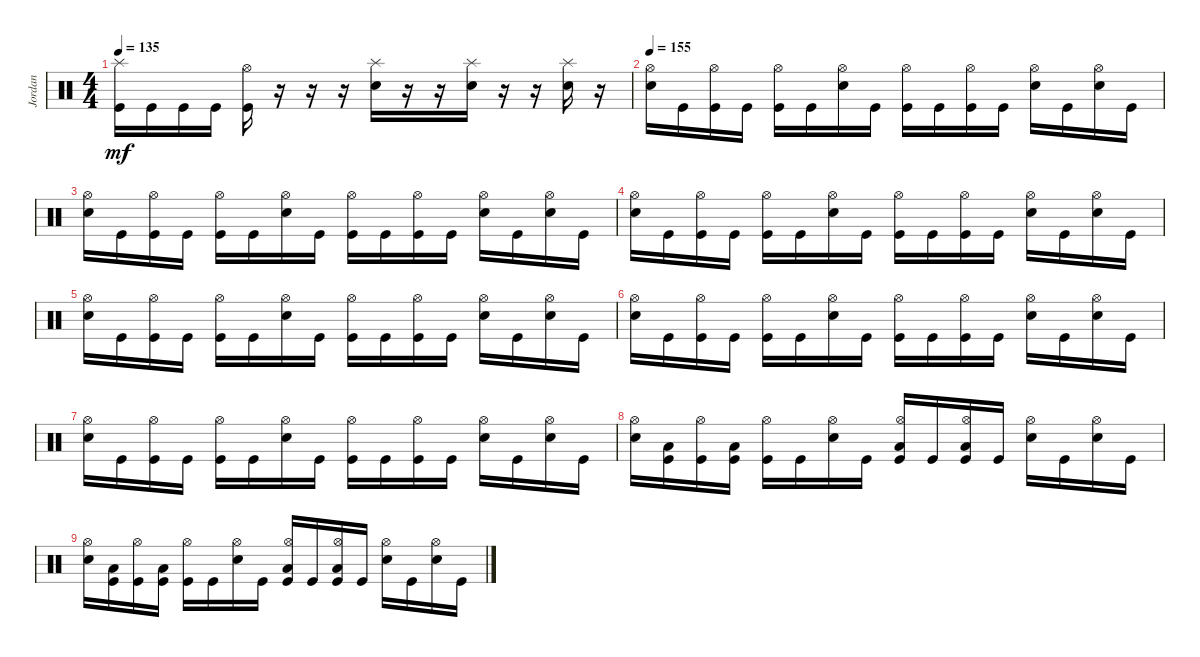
\track ("Jordan" "Jordan") {instrument percussion}
\staff {score}
\articulation defaults
\ts (4 4)
\tempo 135
\clef neutral
\ks c
("Kick (hit)" "Splash (hit)").16{dy mf} "Kick (hit)".16 "Kick (hit)".16 "Kick (hit)".16 ("Kick (hit)" "Hi-Hat (open)").16 r.16 r.16 r.16 ("Snare (hit) 2" "Splash (hit)").16 r.16 r.16 ("Snare (hit) 2" "Splash (hit)").16 r.16 r.16 ("Snare (hit) 2" "Splash (hit)").16 r.16 |
\tempo 155
("Snare (hit) 2" "Hi-Hat (open)").16 "Kick (hit)".16 ("Kick (hit)" "Hi-Hat (open)").16 "Kick (hit)".16 ("Hi-Hat (open)" "Kick (hit)").16 "Kick (hit)".16 ("Hi-Hat (open)" "Snare (hit) 2").16 "Kick (hit)".16 ("Hi-Hat (open)" "Kick (hit)").16 "Kick (hit)".16 ("Kick (hit)" "Hi-Hat (open)").16 "Kick (hit)".16 ("Hi-Hat (open)" "Snare (hit) 2").16 "Kick (hit)".16 ("Hi-Hat (open)" "Snare (hit) 2").16 "Kick (hit)".16 |
("Snare (hit) 2" "Hi-Hat (open)").16 "Kick (hit)".16 ("Kick (hit)" "Hi-Hat (open)").16 "Kick (hit)".16 ("Hi-Hat (open)" "Kick (hit)").16 "Kick (hit)".16 ("Hi-Hat (open)" "Snare (hit) 2").16 "Kick (hit)".16 ("Hi-Hat (open)" "Kick (hit)").16 "Kick (hit)".16 ("Kick (hit)" "Hi-Hat (open)").16 "Kick (hit)".16 ("Hi-Hat (open)" "Snare (hit) 2").16 "Kick (hit)".16 ("Hi-Hat (open)" "Snare (hit) 2").16 "Kick (hit)".16 |
("Snare (hit) 2" "Hi-Hat (open)").16 "Kick (hit)".16 ("Kick (hit)" "Hi-Hat (open)").16 "Kick (hit)".16 ("Hi-Hat (open)" "Kick (hit)").16 "Kick (hit)".16 ("Hi-Hat (open)" "Snare (hit) 2").16 "Kick (hit)".16 ("Hi-Hat (open)" "Kick (hit)").16 "Kick (hit)".16 ("Kick (hit)" "Hi-Hat (open)").16 "Kick (hit)".16 ("Hi-Hat (open)" "Snare (hit) 2").16 "Kick (hit)".16 ("Hi-Hat (open)" "Snare (hit) 2").16 "Kick (hit)".16 |
("Snare (hit) 2" "Hi-Hat (open)").16 "Kick (hit)".16 ("Kick (hit)" "Hi-Hat (open)").16 "Kick (hit)".16 ("Hi-Hat (open)" "Kick (hit)").16 "Kick (hit)".16 ("Hi-Hat (open)" "Snare (hit) 2").16 "Kick (hit)".16 ("Hi-Hat (open)" "Kick (hit)").16 "Kick (hit)".16 ("Kick (hit)" "Hi-Hat (open)").16 "Kick (hit)".16 ("Hi-Hat (open)" "Snare (hit) 2").16 "Kick (hit)".16 ("Hi-Hat (open)" "Snare (hit) 2").16 "Kick (hit)".16 |
("Snare (hit) 2" "Hi-Hat (open)").16 "Kick (hit)".16 ("Kick (hit)" "Hi-Hat (open)").16 "Kick (hit)".16 ("Hi-Hat (open)" "Kick (hit)").16 "Kick (hit)".16 ("Hi-Hat (open)" "Snare (hit) 2").16 "Kick (hit)".16 ("Hi-Hat (open)" "Kick (hit)").16 "Kick (hit)".16 ("Kick (hit)" "Hi-Hat (open)").16 "Kick (hit)".16 ("Hi-Hat (open)" "Snare (hit) 2").16 "Kick (hit)".16 ("Hi-Hat (open)" "Snare (hit) 2").16 "Kick (hit)".16 |
("Snare (hit) 2" "Hi-Hat (open)").16 "Kick (hit)".16 ("Kick (hit)" "Hi-Hat (open)").16 "Kick (hit)".16 ("Hi-Hat (open)" "Kick (hit)").16 "Kick (hit)".16 ("Hi-Hat (open)" "Snare (hit) 2").16 "Kick (hit)".16 ("Hi-Hat (open)" "Kick (hit)").16 "Kick (hit)".16 ("Kick (hit)" "Hi-Hat (open)").16 "Kick (hit)".16 ("Hi-Hat (open)" "Snare (hit) 2").16 "Kick (hit)".16 ("Hi-Hat (open)" "Snare (hit) 2").16 "Kick (hit)".16 |
("Snare (hit) 2" "Hi-Hat (open)").16 ("Low Floor Tom (hit)" "Kick (hit)").16 ("Kick (hit)" "Hi-Hat (open)").16 ("Low Floor Tom (hit)" "Kick (hit)").16 ("Hi-Hat (open)" "Kick (hit)").16 "Kick (hit)".16 ("Hi-Hat (open)" "Snare (hit) 2").16 "Kick (hit)".16 ("Hi-Hat (open)" "Low Floor Tom (hit)" "Kick (hit)").16 "Kick (hit)".16 ("Hi-Hat (open)" "Low Floor Tom (hit)" "Kick (hit)").16 "Kick (hit)".16 ("Hi-Hat (open)" "Snare (hit) 2").16 "Kick (hit)".16 ("Hi-Hat (open)" "Snare (hit) 2").16 "Kick (hit)".16 |
("Snare (hit) 2" "Hi-Hat (open)").16 ("Low Floor Tom (hit)" "Kick (hit)").16 ("Kick (hit)" "Hi-Hat (open)").16 ("Low Floor Tom (hit)" "Kick (hit)").16 ("Hi-Hat (open)" "Kick (hit)").16 "Kick (hit)".16 ("Hi-Hat (open)" "Snare (hit) 2").16 "Kick (hit)".16 ("Hi-Hat (open)" "Low Floor Tom (hit)" "Kick (hit)").16 "Kick (hit)".16 ("Hi-Hat (open)" "Low Floor Tom (hit)" "Kick (hit)").16 "Kick (hit)".16 ("Hi-Hat (open)" "Snare (hit) 2").16 "Kick (hit)".16 ("Hi-Hat (open)" "Snare (hit) 2").16 "Kick (hit)".16
